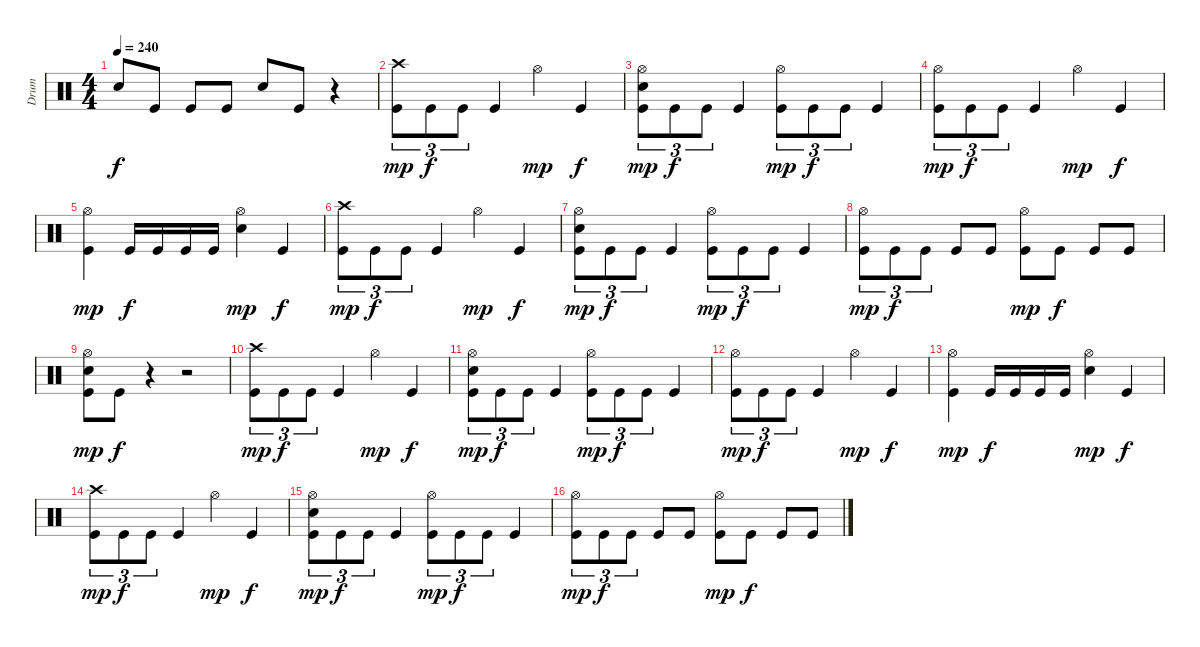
\track ("Drum" "Drum") {instrument percussion}
\staff {score}
\articulation defaults
\ts (4 4)
\tempo 240
\clef neutral
\ks c "Electric Snare (hit)".8{dy f} "Kick (hit)".8 "Kick (hit)".8 "Kick (hit)".8 "Electric Snare (hit)".8 "Kick (hit)".8
r.4 |
("Crash high (hit)" "Kick (hit)").8{tu (3 2) dy mp} "Kick (hit)".8{tu (3 2) dy f} "Kick (hit)".8{tu (3 2)} "Kick (hit)".4 "Hi-Hat (open)".4{dy mp} "Kick (hit)".4{dy f} |
("Hi-Hat (open)" "Electric Snare (hit)" "Kick (hit)").8{tu (3 2) dy mp} "Kick (hit)".8{tu (3 2) dy f} "Kick (hit)".8{tu (3 2)} "Kick (hit)".4 ("Hi-Hat (open)" "Kick (hit)").8{tu (3 2) dy mp} "Kick (hit)".8{tu (3 2) dy f} "Kick (hit)".8{tu (3 2)} "Kick (hit)".4 |
("Hi-Hat (open)" "Kick (hit)").8{tu (3 2) dy mp} "Kick (hit)".8{tu (3 2) dy f} "Kick (hit)".8{tu (3 2)} "Kick (hit)".4 "Hi-Hat (open)".4{dy mp} "Kick (hit)".4{dy f} |
("Hi-Hat (open)" "Kick (hit)").4{dy mp} "Kick (hit)".16{dy f} "Kick (hit)".16 "Kick (hit)".16 "Kick (hit)".16 ("Hi-Hat (open)" "Electric Snare (hit)").4{dy mp} "Kick (hit)".4{dy f} |
("Crash high (hit)" "Kick (hit)").8{tu (3 2) dy mp} "Kick (hit)".8{tu (3 2) dy f} "Kick (hit)".8{tu (3 2)} "Kick (hit)".4 "Hi-Hat (open)".4{dy mp} "Kick (hit)".4{dy f} |
("Hi-Hat (open)" "Electric Snare (hit)" "Kick (hit)").8{tu (3 2) dy mp} "Kick (hit)".8{tu (3 2) dy f} "Kick (hit)".8{tu (3 2)} "Kick (hit)".4 ("Hi-Hat (open)" "Kick (hit)").8{tu (3 2) dy mp} "Kick (hit)".8{tu (3 2) dy f} "Kick (hit)".8{tu (3 2)} "Kick (hit)".4 |
("Hi-Hat (open)" "Kick (hit)").8{tu (3 2) dy mp} "Kick (hit)".8{tu (3 2) dy f} "Kick (hit)".8{tu (3 2)} "Kick (hit)".8 "Kick (hit)".8 ("Hi-Hat (open)" "Kick (hit)").8{dy mp} "Kick (hit)".8{dy f} "Kick (hit)".8 "Kick (hit)".8 |
("Hi-Hat (open)" "Electric Snare (hit)" "Kick (hit)").8{dy mp} "Kick (hit)".8{dy f} r.4 r.2 |
("Crash high (hit)" "Kick (hit)").8{tu (3 2) dy mp} "Kick (hit)".8{tu (3 2) dy f} "Kick (hit)".8{tu (3 2)} "Kick (hit)".4 "Hi-Hat (open)".4{dy mp} "Kick (hit)".4{dy f} |
("Hi-Hat (open)" "Electric Snare (hit)" "Kick (hit)").8{tu (3 2) dy mp} "Kick (hit)".8{tu (3 2) dy f} "Kick (hit)".8{tu (3 2)} "Kick (hit)".4 ("Hi-Hat (open)" "Kick (hit)").8{tu (3 2) dy mp} "Kick (hit)".8{tu (3 2) dy f} "Kick (hit)".8{tu (3 2)} "Kick (hit)".4 |
("Hi-Hat (open)" "Kick (hit)").8{tu (3 2) dy mp} "Kick (hit)".8{tu (3 2) dy f} "Kick (hit)".8{tu (3 2)} "Kick (hit)".4 "Hi-Hat (open)".4{dy mp} "Kick (hit)".4{dy f} |
("Hi-Hat (open)" "Kick (hit)").4{dy mp} "Kick (hit)".16{dy f} "Kick (hit)".16 "Kick (hit)".16 "Kick (hit)".16 ("Hi-Hat (open)" "Electric Snare (hit)").4{dy mp} "Kick (hit)".4{dy f} |
("Crash high (hit)" "Kick (hit)").8{tu (3 2) dy mp} "Kick (hit)".8{tu (3 2) dy f} "Kick (hit)".8{tu (3 2)} "Kick (hit)".4 "Hi-Hat (open)".4{dy mp} "Kick (hit)".4{dy f} |
("Hi-Hat (open)" "Electric Snare (hit)" "Kick (hit)").8{tu (3 2) dy mp} "Kick (hit)".8{tu (3 2) dy f} "Kick (hit)".8{tu (3 2)} "Kick (hit)".4 ("Hi-Hat (open)" "Kick (hit)").8{tu (3 2) dy mp} "Kick (hit)".8{tu (3 2) dy f} "Kick (hit)".8{tu (3 2)} "Kick (hit)".4 |
("Hi-Hat (open)" "Kick (hit)").8{tu (3 2) dy mp} "Kick (hit)".8{tu (3 2) dy f} "Kick (hit)".8{tu (3 2)} "Kick (hit)".8 "Kick (hit)".8 ("Hi-Hat (open)" "Kick (hit)").8{dy mp} "Kick (hit)".8{dy f} "Kick (hit)".8 "Kick (hit)".8
